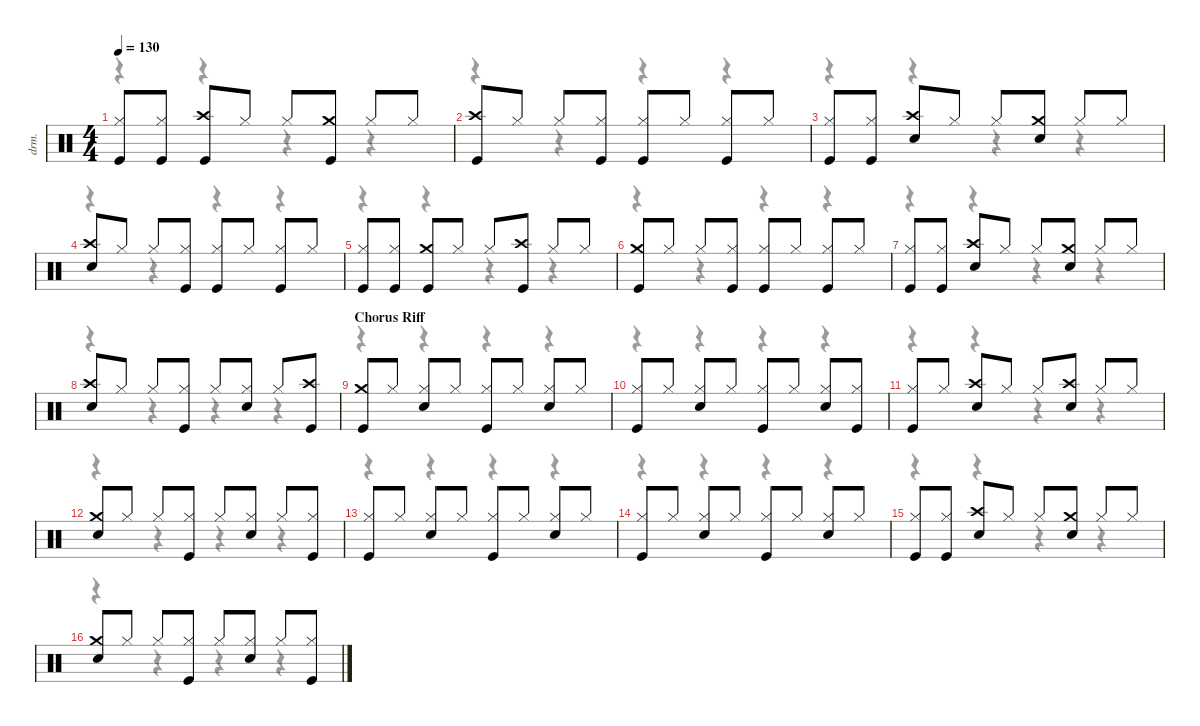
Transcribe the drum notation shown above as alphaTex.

\defaultSystemsLayout 4
\hideDynamics
\bracketExtendMode nobrackets
\track ("Lars Ulrich - Drums" "drm.") {instrument percussion}
\staff {score}
\articulation defaults
\voice
\ts (4 4)
\tempo 130
\clef neutral
\ks c
("Hi-Hat (closed)" "Kick (hit)").8{dy f} ("Hi-Hat (closed)" "Kick (hit)").8 ("Crash high (hit)" "Kick (hit)").8 "Hi-Hat (closed)".8 "Hi-Hat (closed)".8 ("Crash medium (hit)" "Kick (hit)").8 "Hi-Hat (closed)".8 "Hi-Hat (closed)".8 |
("Crash high (hit)" "Kick (hit)").8 "Hi-Hat (closed)".8 "Hi-Hat (closed)".8 ("Hi-Hat (closed)" "Kick (hit)").8 ("Hi-Hat (closed)" "Kick (hit)").8 "Hi-Hat (closed)".8 ("Hi-Hat (closed)" "Kick (hit)").8 "Hi-Hat (closed)".8 |
("Hi-Hat (closed)" "Kick (hit)").8 ("Hi-Hat (closed)" "Kick (hit)").8 ("Crash high (hit)" "Snare (hit) 2").8 "Hi-Hat (closed)".8 "Hi-Hat (closed)".8 ("Crash medium (hit)" "Snare (hit) 2").8 "Hi-Hat (closed)".8 "Hi-Hat (closed)".8 |
("Crash high (hit)" "Snare (hit) 2").8 "Hi-Hat (closed)".8 "Hi-Hat (closed)".8 ("Hi-Hat (closed)" "Kick (hit)").8 ("Hi-Hat (closed)" "Kick (hit)").8 "Hi-Hat (closed)".8 ("Hi-Hat (closed)" "Kick (hit)").8 "Hi-Hat (closed)".8 |
("Hi-Hat (closed)" "Kick (hit)").8 ("Hi-Hat (closed)" "Kick (hit)").8 ("Crash medium (hit)" "Kick (hit)").8 "Hi-Hat (closed)".8 "Hi-Hat (closed)".8 ("Crash high (hit)" "Kick (hit)").8 "Hi-Hat (closed)".8 "Hi-Hat (closed)".8 |
("Crash medium (hit)" "Kick (hit)").8 "Hi-Hat (closed)".8 "Hi-Hat (closed)".8 ("Hi-Hat (closed)" "Kick (hit)").8 ("Hi-Hat (closed)" "Kick (hit)").8 "Hi-Hat (closed)".8 ("Hi-Hat (closed)" "Kick (hit)").8 "Hi-Hat (closed)".8 |
("Hi-Hat (closed)" "Kick (hit)").8 ("Hi-Hat (closed)" "Kick (hit)").8 ("Crash high (hit)" "Snare (hit) 2").8 "Hi-Hat (closed)".8 "Hi-Hat (closed)".8 ("Crash medium (hit)" "Snare (hit) 2").8 "Hi-Hat (closed)".8 "Hi-Hat (closed)".8 |
("Crash high (hit)" "Snare (hit) 2").8 "Hi-Hat (closed)".8 "Hi-Hat (closed)".8 ("Hi-Hat (closed)" "Kick (hit)").8 "Hi-Hat (closed)".8 ("Hi-Hat (closed)" "Snare (hit) 2").8 "Hi-Hat (closed)".8 ("Crash high (hit)" "Kick (hit)").8 |
\section ("" "Chorus Riff")
("Crash medium (hit)" "Kick (hit)").8 "Hi-Hat (closed)".8 ("Hi-Hat (closed)" "Snare (hit) 2").8 "Hi-Hat (closed)".8 ("Hi-Hat (closed)" "Kick (hit)").8 "Hi-Hat (closed)".8 ("Hi-Hat (closed)" "Snare (hit) 2").8 "Hi-Hat (closed)".8 |
("Hi-Hat (closed)" "Kick (hit)").8 "Hi-Hat (closed)".8 ("Hi-Hat (closed)" "Snare (hit) 2").8 "Hi-Hat (closed)".8 ("Hi-Hat (closed)" "Kick (hit)").8 "Hi-Hat (closed)".8 ("Hi-Hat (closed)" "Snare (hit) 2").8 ("Hi-Hat (closed)" "Kick (hit)").8 |
("Hi-Hat (closed)" "Kick (hit)").8 "Hi-Hat (closed)".8 ("Crash high (hit)" "Snare (hit) 2").8 "Hi-Hat (closed)".8 "Hi-Hat (closed)".8 ("Crash high (hit)" "Snare (hit) 2").8 "Hi-Hat (closed)".8 "Hi-Hat (closed)".8 |
("Crash medium (hit)" "Snare (hit) 2").8 "Hi-Hat (closed)".8 "Hi-Hat (closed)".8 ("Hi-Hat (closed)" "Kick (hit)").8 "Hi-Hat (closed)".8 ("Hi-Hat (closed)" "Snare (hit) 2").8 "Hi-Hat (closed)".8 ("Hi-Hat (closed)" "Kick (hit)").8 |
("Hi-Hat (closed)" "Kick (hit)").8 "Hi-Hat (closed)".8 ("Hi-Hat (closed)" "Snare (hit) 2").8 "Hi-Hat (closed)".8 ("Hi-Hat (closed)" "Kick (hit)").8 "Hi-Hat (closed)".8 ("Hi-Hat (closed)" "Snare (hit) 2").8 "Hi-Hat (closed)".8 |
("Hi-Hat (closed)" "Kick (hit)").8 "Hi-Hat (closed)".8 ("Hi-Hat (closed)" "Snare (hit) 2").8 "Hi-Hat (closed)".8 ("Hi-Hat (closed)" "Kick (hit)").8 "Hi-Hat (closed)".8 ("Hi-Hat (closed)" "Snare (hit) 2").8 "Hi-Hat (closed)".8 |
("Hi-Hat (closed)" "Kick (hit)").8 ("Hi-Hat (closed)" "Kick (hit)").8 ("Crash high (hit)" "Snare (hit) 2").8 "Hi-Hat (closed)".8 "Hi-Hat (closed)".8 ("Crash medium (hit)" "Snare (hit) 2").8 "Hi-Hat (closed)".8 "Hi-Hat (closed)".8 |
("Crash medium (hit)" "Snare (hit) 2").8 "Hi-Hat (closed)".8 "Hi-Hat (closed)".8 ("Hi-Hat (closed)" "Kick (hit)").8 "Hi-Hat (closed)".8 ("Hi-Hat (closed)" "Snare (hit) 2").8 "Hi-Hat (closed)".8 ("Hi-Hat (closed)" "Kick (hit)").8
\voice
\clef neutral
\ottava regular
\simile none
\ks c
r.4{dy mf} r.4 r.4 r.4 |
r.4 r.4 r.4 r.4 |
r.4 r.4 r.4 r.4 |
r.4 r.4 r.4 r.4 |
r.4 r.4 r.4 r.4 |
r.4 r.4 r.4 r.4 |
r.4 r.4 r.4 r.4 |
r.4 r.4 r.4 r.4 |
r.4 r.4 r.4 r.4 |
r.4 r.4 r.4 r.4 |
r.4 r.4 r.4 r.4 |
r.4 r.4 r.4 r.4 |
r.4 r.4 r.4 r.4 |
r.4 r.4 r.4 r.4 |
r.4 r.4 r.4 r.4 |
r.4 r.4 r.4 r.4
